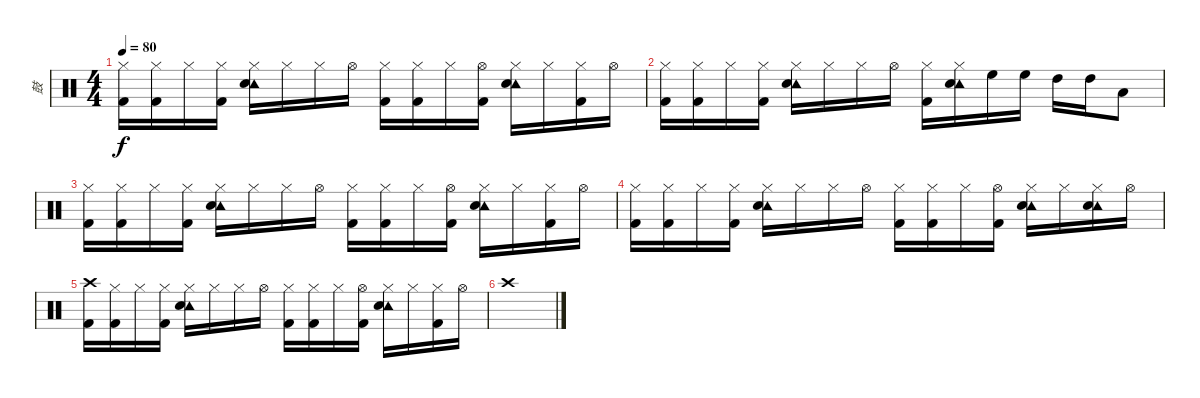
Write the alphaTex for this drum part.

\track ("鼓" "鼓") {instrument percussion}
\staff {score}
\articulation defaults
\ts (4 4)
\tempo 80
\clef neutral
\ks c
("Hi-Hat (closed)" "Kick (hit) 2").16{dy f} ("Hi-Hat (closed)" "Kick (hit) 2").16 "Hi-Hat (closed)".16 ("Hi-Hat (closed)" "Kick (hit) 2").16 ("Hi-Hat (closed)" "Tambourine (hit)" "Snare (hit) 2").16 "Hi-Hat (closed)".16 "Hi-Hat (closed)".16 "Hi-Hat (open)".16 ("Hi-Hat (closed)" "Kick (hit) 2").16 ("Hi-Hat (closed)" "Kick (hit) 2").16 "Hi-Hat (closed)".16 ("Hi-Hat (open)" "Kick (hit) 2").16 ("Hi-Hat (closed)" "Tambourine (hit)" "Snare (hit) 2").16 "Hi-Hat (closed)".16 ("Hi-Hat (closed)" "Kick (hit) 2").16 "Hi-Hat (open)".16 |
("Hi-Hat (closed)" "Kick (hit) 2").16 ("Hi-Hat (closed)" "Kick (hit) 2").16 "Hi-Hat (closed)".16 ("Hi-Hat (closed)" "Kick (hit) 2").16 ("Hi-Hat (closed)" "Tambourine (hit)" "Snare (hit) 2").16 "Hi-Hat (closed)".16 "Hi-Hat (closed)".16 "Hi-Hat (open)".16 ("Hi-Hat (closed)" "Kick (hit) 2").16 ("Hi-Hat (closed)" "Tambourine (hit)" "Snare (hit) 2").16 "High Floor Tom (hit)".16 "High Floor Tom (hit)".16 "High Tom (hit)".16 "High Tom (hit)".16 "Low Tom (hit)".8 |
("Hi-Hat (closed)" "Kick (hit) 2").16 ("Hi-Hat (closed)" "Kick (hit) 2").16 "Hi-Hat (closed)".16 ("Hi-Hat (closed)" "Kick (hit) 2").16 ("Hi-Hat (closed)" "Tambourine (hit)" "Snare (hit) 2").16 "Hi-Hat (closed)".16 "Hi-Hat (closed)".16 "Hi-Hat (open)".16 ("Hi-Hat (closed)" "Kick (hit) 2").16 ("Hi-Hat (closed)" "Kick (hit) 2").16 "Hi-Hat (closed)".16 ("Hi-Hat (open)" "Kick (hit) 2").16 ("Hi-Hat (closed)" "Tambourine (hit)" "Snare (hit) 2").16 "Hi-Hat (closed)".16 ("Hi-Hat (closed)" "Kick (hit) 2").16 "Hi-Hat (open)".16 |
("Hi-Hat (closed)" "Kick (hit) 2").16 ("Hi-Hat (closed)" "Kick (hit) 2").16 "Hi-Hat (closed)".16 ("Hi-Hat (closed)" "Kick (hit) 2").16 ("Hi-Hat (closed)" "Tambourine (hit)" "Snare (hit) 2").16 "Hi-Hat (closed)".16 "Hi-Hat (closed)".16 "Hi-Hat (open)".16 ("Hi-Hat (closed)" "Kick (hit) 2").16 ("Hi-Hat (closed)" "Kick (hit) 2").16 "Hi-Hat (closed)".16 ("Hi-Hat (open)" "Kick (hit) 2").16 ("Hi-Hat (closed)" "Tambourine (hit)" "Snare (hit) 2").16 "Hi-Hat (closed)".16 ("Hi-Hat (closed)" "Tambourine (hit)" "Snare (hit) 2").16 "Hi-Hat (open)".16 |
("Crash high (hit)" "Kick (hit) 2").16 ("Hi-Hat (closed)" "Kick (hit) 2").16 "Hi-Hat (closed)".16 ("Hi-Hat (closed)" "Kick (hit) 2").16 ("Hi-Hat (closed)" "Tambourine (hit)" "Snare (hit) 2").16 "Hi-Hat (closed)".16 "Hi-Hat (closed)".16 "Hi-Hat (open)".16 ("Hi-Hat (closed)" "Kick (hit) 2").16 ("Hi-Hat (closed)" "Kick (hit) 2").16 "Hi-Hat (closed)".16 ("Hi-Hat (open)" "Kick (hit) 2").16 ("Hi-Hat (closed)" "Tambourine (hit)" "Snare (hit) 2").16 "Hi-Hat (closed)".16 ("Hi-Hat (closed)" "Kick (hit) 2").16 "Hi-Hat (open)".16 |
"Crash high (hit)".1
